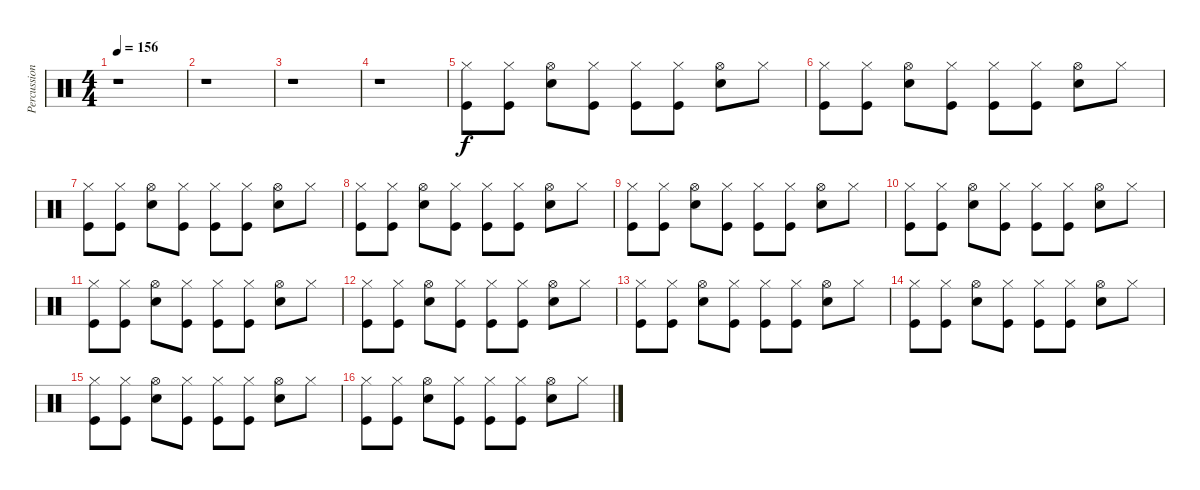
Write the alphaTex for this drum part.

\track ("Percussion" "Percussion") {instrument percussion}
\staff {score}
\articulation defaults
\ts (4 4)
\tempo 156
\clef neutral
\ks c
r.1{dy f} |
r.1 |
r.1 |
r.1 |
("Kick (hit)" "Hi-Hat (closed)").8 ("Kick (hit)" "Hi-Hat (closed)").8 ("Snare (hit) 2" "Hi-Hat (open)").8 ("Kick (hit)" "Hi-Hat (closed)").8 ("Kick (hit)" "Hi-Hat (closed)").8 ("Kick (hit)" "Hi-Hat (closed)").8 ("Snare (hit) 2" "Hi-Hat (open)").8 "Hi-Hat (closed)".8 |
("Kick (hit)" "Hi-Hat (closed)").8 ("Kick (hit)" "Hi-Hat (closed)").8 ("Snare (hit) 2" "Hi-Hat (open)").8 ("Kick (hit)" "Hi-Hat (closed)").8 ("Kick (hit)" "Hi-Hat (closed)").8 ("Kick (hit)" "Hi-Hat (closed)").8 ("Snare (hit) 2" "Hi-Hat (open)").8 "Hi-Hat (closed)".8 |
("Kick (hit)" "Hi-Hat (closed)").8 ("Kick (hit)" "Hi-Hat (closed)").8 ("Snare (hit) 2" "Hi-Hat (open)").8 ("Kick (hit)" "Hi-Hat (closed)").8 ("Kick (hit)" "Hi-Hat (closed)").8 ("Kick (hit)" "Hi-Hat (closed)").8 ("Snare (hit) 2" "Hi-Hat (open)").8 "Hi-Hat (closed)".8 |
("Kick (hit)" "Hi-Hat (closed)").8 ("Kick (hit)" "Hi-Hat (closed)").8 ("Snare (hit) 2" "Hi-Hat (open)").8 ("Kick (hit)" "Hi-Hat (closed)").8 ("Kick (hit)" "Hi-Hat (closed)").8 ("Kick (hit)" "Hi-Hat (closed)").8 ("Snare (hit) 2" "Hi-Hat (open)").8 "Hi-Hat (closed)".8 |
("Kick (hit)" "Hi-Hat (closed)").8 ("Kick (hit)" "Hi-Hat (closed)").8 ("Snare (hit) 2" "Hi-Hat (open)").8 ("Kick (hit)" "Hi-Hat (closed)").8 ("Kick (hit)" "Hi-Hat (closed)").8 ("Kick (hit)" "Hi-Hat (closed)").8 ("Snare (hit) 2" "Hi-Hat (open)").8 "Hi-Hat (closed)".8 |
("Kick (hit)" "Hi-Hat (closed)").8 ("Kick (hit)" "Hi-Hat (closed)").8 ("Snare (hit) 2" "Hi-Hat (open)").8 ("Kick (hit)" "Hi-Hat (closed)").8 ("Kick (hit)" "Hi-Hat (closed)").8 ("Kick (hit)" "Hi-Hat (closed)").8 ("Snare (hit) 2" "Hi-Hat (open)").8 "Hi-Hat (closed)".8 |
("Kick (hit)" "Hi-Hat (closed)").8 ("Kick (hit)" "Hi-Hat (closed)").8 ("Snare (hit) 2" "Hi-Hat (open)").8 ("Kick (hit)" "Hi-Hat (closed)").8 ("Kick (hit)" "Hi-Hat (closed)").8 ("Kick (hit)" "Hi-Hat (closed)").8 ("Snare (hit) 2" "Hi-Hat (open)").8 "Hi-Hat (closed)".8 |
("Kick (hit)" "Hi-Hat (closed)").8 ("Kick (hit)" "Hi-Hat (closed)").8 ("Snare (hit) 2" "Hi-Hat (open)").8 ("Kick (hit)" "Hi-Hat (closed)").8 ("Kick (hit)" "Hi-Hat (closed)").8 ("Kick (hit)" "Hi-Hat (closed)").8 ("Snare (hit) 2" "Hi-Hat (open)").8 "Hi-Hat (closed)".8 |
("Kick (hit)" "Hi-Hat (closed)").8 ("Kick (hit)" "Hi-Hat (closed)").8 ("Snare (hit) 2" "Hi-Hat (open)").8 ("Kick (hit)" "Hi-Hat (closed)").8 ("Kick (hit)" "Hi-Hat (closed)").8 ("Kick (hit)" "Hi-Hat (closed)").8 ("Snare (hit) 2" "Hi-Hat (open)").8 "Hi-Hat (closed)".8 |
("Kick (hit)" "Hi-Hat (closed)").8 ("Kick (hit)" "Hi-Hat (closed)").8 ("Snare (hit) 2" "Hi-Hat (open)").8 ("Kick (hit)" "Hi-Hat (closed)").8 ("Kick (hit)" "Hi-Hat (closed)").8 ("Kick (hit)" "Hi-Hat (closed)").8 ("Snare (hit) 2" "Hi-Hat (open)").8 "Hi-Hat (closed)".8 |
("Kick (hit)" "Hi-Hat (closed)").8 ("Kick (hit)" "Hi-Hat (closed)").8 ("Snare (hit) 2" "Hi-Hat (open)").8 ("Kick (hit)" "Hi-Hat (closed)").8 ("Kick (hit)" "Hi-Hat (closed)").8 ("Kick (hit)" "Hi-Hat (closed)").8 ("Snare (hit) 2" "Hi-Hat (open)").8 "Hi-Hat (closed)".8 |
("Kick (hit)" "Hi-Hat (closed)").8 ("Kick (hit)" "Hi-Hat (closed)").8 ("Snare (hit) 2" "Hi-Hat (open)").8 ("Kick (hit)" "Hi-Hat (closed)").8 ("Kick (hit)" "Hi-Hat (closed)").8 ("Kick (hit)" "Hi-Hat (closed)").8 ("Snare (hit) 2" "Hi-Hat (open)").8 "Hi-Hat (closed)".8
